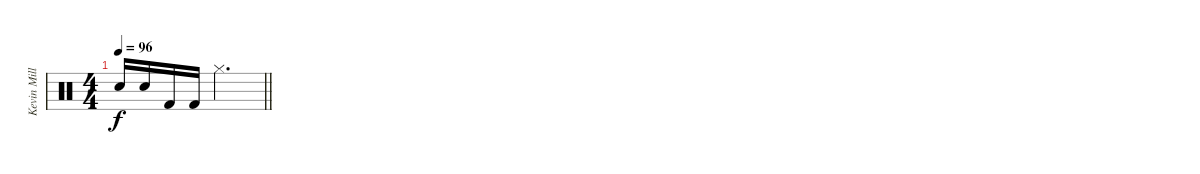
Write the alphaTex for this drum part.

\track ("Kevin Miller (Drums)" "Kevin Mill") {instrument percussion}
\staff {score}
\articulation defaults
\ts (4 4)
\tempo 96
\clef neutral
\barLineRight lightlight
\ks c "Electric Snare (hit)".16{dy f} "Electric Snare (hit)".16 "Kick (hit) 2".16 "Kick (hit) 2".16 "Hi-Hat (closed)".2{d}
